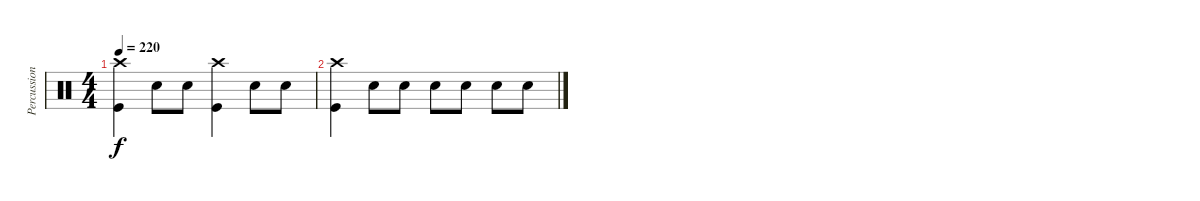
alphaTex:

\track ("Percussion" "Percussion") {instrument percussion}
\staff {score}
\articulation defaults
\ts (4 4)
\tempo 220
\clef neutral
\ks c
("Crash high (hit)" "Kick (hit)").4{dy f} "Electric Snare (hit)".8 "Electric Snare (hit)".8 ("Kick (hit)" "Crash high (hit)").4 "Electric Snare (hit)".8 "Electric Snare (hit)".8 |
("Crash high (hit)" "Kick (hit)").4 "Electric Snare (hit)".8 "Electric Snare (hit)".8 "Electric Snare (hit)".8 "Electric Snare (hit)".8 "Electric Snare (hit)".8 "Electric Snare (hit)".8
